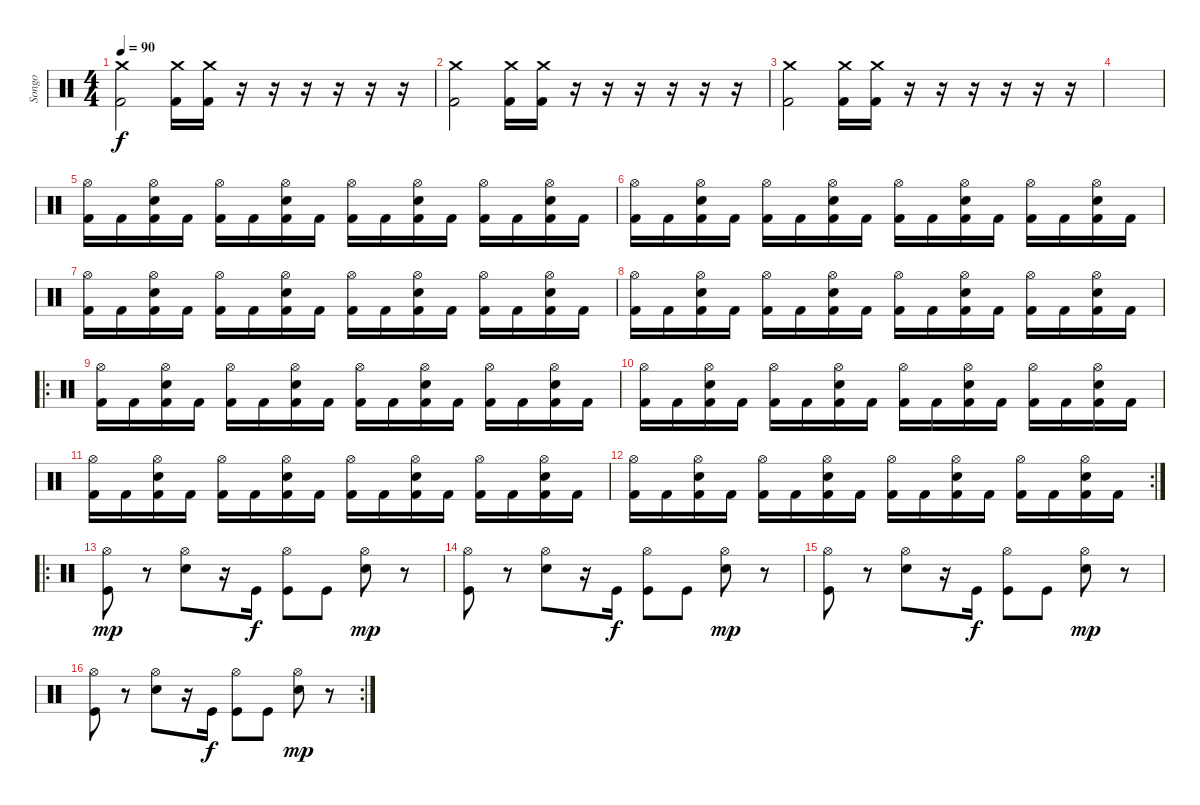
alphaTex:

\track ("Songo" "Songo") {instrument percussion}
\staff {score}
\articulation defaults
\ts (4 4)
\tempo 90
\clef neutral
\ks c
("Crash medium (hit)" "Kick (hit) 2").2{dy f} ("Crash medium (hit)" "Kick (hit) 2").16 ("Crash medium (hit)" "Kick (hit) 2").16 r.16 r.16 r.16 r.16 r.16 r.16 |
("Crash medium (hit)" "Kick (hit) 2").2 ("Crash medium (hit)" "Kick (hit) 2").16 ("Crash medium (hit)" "Kick (hit) 2").16 r.16 r.16 r.16 r.16 r.16 r.16 |
("Crash medium (hit)" "Kick (hit) 2").2 ("Crash medium (hit)" "Kick (hit) 2").16 ("Crash medium (hit)" "Kick (hit) 2").16 r.16 r.16 r.16 r.16 r.16 r.16 |
|
("Hi-Hat (open)" "Kick (hit) 2").16 "Kick (hit) 2".16 ("Kick (hit) 2" "Snare (hit) 2" "Hi-Hat (open)").16 "Kick (hit) 2".16 ("Kick (hit) 2" "Hi-Hat (open)").16 "Kick (hit) 2".16 ("Kick (hit) 2" "Snare (hit) 2" "Hi-Hat (open)").16 "Kick (hit) 2".16 ("Kick (hit) 2" "Hi-Hat (open)").16 "Kick (hit) 2".16 ("Kick (hit) 2" "Snare (hit) 2" "Hi-Hat (open)").16 "Kick (hit) 2".16 ("Kick (hit) 2" "Hi-Hat (open)").16 "Kick (hit) 2".16 ("Kick (hit) 2" "Snare (hit) 2" "Hi-Hat (open)").16 "Kick (hit) 2".16 |
("Hi-Hat (open)" "Kick (hit) 2").16 "Kick (hit) 2".16 ("Kick (hit) 2" "Snare (hit) 2" "Hi-Hat (open)").16 "Kick (hit) 2".16 ("Kick (hit) 2" "Hi-Hat (open)").16 "Kick (hit) 2".16 ("Kick (hit) 2" "Snare (hit) 2" "Hi-Hat (open)").16 "Kick (hit) 2".16 ("Kick (hit) 2" "Hi-Hat (open)").16 "Kick (hit) 2".16 ("Kick (hit) 2" "Snare (hit) 2" "Hi-Hat (open)").16 "Kick (hit) 2".16 ("Kick (hit) 2" "Hi-Hat (open)").16 "Kick (hit) 2".16 ("Kick (hit) 2" "Snare (hit) 2" "Hi-Hat (open)").16 "Kick (hit) 2".16 |
("Hi-Hat (open)" "Kick (hit) 2").16 "Kick (hit) 2".16 ("Kick (hit) 2" "Snare (hit) 2" "Hi-Hat (open)").16 "Kick (hit) 2".16 ("Kick (hit) 2" "Hi-Hat (open)").16 "Kick (hit) 2".16 ("Kick (hit) 2" "Snare (hit) 2" "Hi-Hat (open)").16 "Kick (hit) 2".16 ("Kick (hit) 2" "Hi-Hat (open)").16 "Kick (hit) 2".16 ("Kick (hit) 2" "Snare (hit) 2" "Hi-Hat (open)").16 "Kick (hit) 2".16 ("Kick (hit) 2" "Hi-Hat (open)").16 "Kick (hit) 2".16 ("Kick (hit) 2" "Snare (hit) 2" "Hi-Hat (open)").16 "Kick (hit) 2".16 |
("Hi-Hat (open)" "Kick (hit) 2").16 "Kick (hit) 2".16 ("Kick (hit) 2" "Snare (hit) 2" "Hi-Hat (open)").16 "Kick (hit) 2".16 ("Kick (hit) 2" "Hi-Hat (open)").16 "Kick (hit) 2".16 ("Kick (hit) 2" "Snare (hit) 2" "Hi-Hat (open)").16 "Kick (hit) 2".16 ("Kick (hit) 2" "Hi-Hat (open)").16 "Kick (hit) 2".16 ("Kick (hit) 2" "Snare (hit) 2" "Hi-Hat (open)").16 "Kick (hit) 2".16 ("Kick (hit) 2" "Hi-Hat (open)").16 "Kick (hit) 2".16 ("Kick (hit) 2" "Snare (hit) 2" "Hi-Hat (open)").16 "Kick (hit) 2".16 |
\ro
("Hi-Hat (open)" "Kick (hit) 2").16 "Kick (hit) 2".16 ("Kick (hit) 2" "Snare (hit) 2" "Hi-Hat (open)").16 "Kick (hit) 2".16 ("Kick (hit) 2" "Hi-Hat (open)").16 "Kick (hit) 2".16 ("Kick (hit) 2" "Snare (hit) 2" "Hi-Hat (open)").16 "Kick (hit) 2".16 ("Kick (hit) 2" "Hi-Hat (open)").16 "Kick (hit) 2".16 ("Kick (hit) 2" "Snare (hit) 2" "Hi-Hat (open)").16 "Kick (hit) 2".16 ("Kick (hit) 2" "Hi-Hat (open)").16 "Kick (hit) 2".16 ("Kick (hit) 2" "Snare (hit) 2" "Hi-Hat (open)").16 "Kick (hit) 2".16 |
("Hi-Hat (open)" "Kick (hit) 2").16 "Kick (hit) 2".16 ("Kick (hit) 2" "Snare (hit) 2" "Hi-Hat (open)").16 "Kick (hit) 2".16 ("Kick (hit) 2" "Hi-Hat (open)").16 "Kick (hit) 2".16 ("Kick (hit) 2" "Snare (hit) 2" "Hi-Hat (open)").16 "Kick (hit) 2".16 ("Kick (hit) 2" "Hi-Hat (open)").16 "Kick (hit) 2".16 ("Kick (hit) 2" "Snare (hit) 2" "Hi-Hat (open)").16 "Kick (hit) 2".16 ("Kick (hit) 2" "Hi-Hat (open)").16 "Kick (hit) 2".16 ("Kick (hit) 2" "Snare (hit) 2" "Hi-Hat (open)").16 "Kick (hit) 2".16 |
("Hi-Hat (open)" "Kick (hit) 2").16 "Kick (hit) 2".16 ("Kick (hit) 2" "Snare (hit) 2" "Hi-Hat (open)").16 "Kick (hit) 2".16 ("Kick (hit) 2" "Hi-Hat (open)").16 "Kick (hit) 2".16 ("Kick (hit) 2" "Snare (hit) 2" "Hi-Hat (open)").16 "Kick (hit) 2".16 ("Kick (hit) 2" "Hi-Hat (open)").16 "Kick (hit) 2".16 ("Kick (hit) 2" "Snare (hit) 2" "Hi-Hat (open)").16 "Kick (hit) 2".16 ("Kick (hit) 2" "Hi-Hat (open)").16 "Kick (hit) 2".16 ("Kick (hit) 2" "Snare (hit) 2" "Hi-Hat (open)").16 "Kick (hit) 2".16 |
\rc 2
("Hi-Hat (open)" "Kick (hit) 2").16 "Kick (hit) 2".16 ("Kick (hit) 2" "Snare (hit) 2" "Hi-Hat (open)").16 "Kick (hit) 2".16 ("Kick (hit) 2" "Hi-Hat (open)").16 "Kick (hit) 2".16 ("Kick (hit) 2" "Snare (hit) 2" "Hi-Hat (open)").16 "Kick (hit) 2".16 ("Kick (hit) 2" "Hi-Hat (open)").16 "Kick (hit) 2".16 ("Kick (hit) 2" "Snare (hit) 2" "Hi-Hat (open)").16 "Kick (hit) 2".16 ("Kick (hit) 2" "Hi-Hat (open)").16 "Kick (hit) 2".16 ("Kick (hit) 2" "Snare (hit) 2" "Hi-Hat (open)").16 "Kick (hit) 2".16 |
\ro
("Hi-Hat (open)" "Kick (hit)").8{dy mp} r.8 ("Hi-Hat (open)" "Snare (hit) 2").8 r.16 "Kick (hit)".16{dy f} ("Hi-Hat (open)" "Kick (hit)").8 "Kick (hit)".8 ("Hi-Hat (open)" "Snare (hit) 2").8{dy mp} r.8 |
("Hi-Hat (open)" "Kick (hit)").8 r.8 ("Hi-Hat (open)" "Snare (hit) 2").8 r.16 "Kick (hit)".16{dy f} ("Hi-Hat (open)" "Kick (hit)").8 "Kick (hit)".8 ("Hi-Hat (open)" "Snare (hit) 2").8{dy mp} r.8 |
("Hi-Hat (open)" "Kick (hit)").8 r.8 ("Hi-Hat (open)" "Snare (hit) 2").8 r.16 "Kick (hit)".16{dy f} ("Hi-Hat (open)" "Kick (hit)").8 "Kick (hit)".8 ("Hi-Hat (open)" "Snare (hit) 2").8{dy mp} r.8 |
\rc 2
("Hi-Hat (open)" "Kick (hit)").8 r.8 ("Hi-Hat (open)" "Snare (hit) 2").8 r.16 "Kick (hit)".16{dy f} ("Hi-Hat (open)" "Kick (hit)").8 "Kick (hit)".8 ("Hi-Hat (open)" "Snare (hit) 2").8{dy mp} r.8
